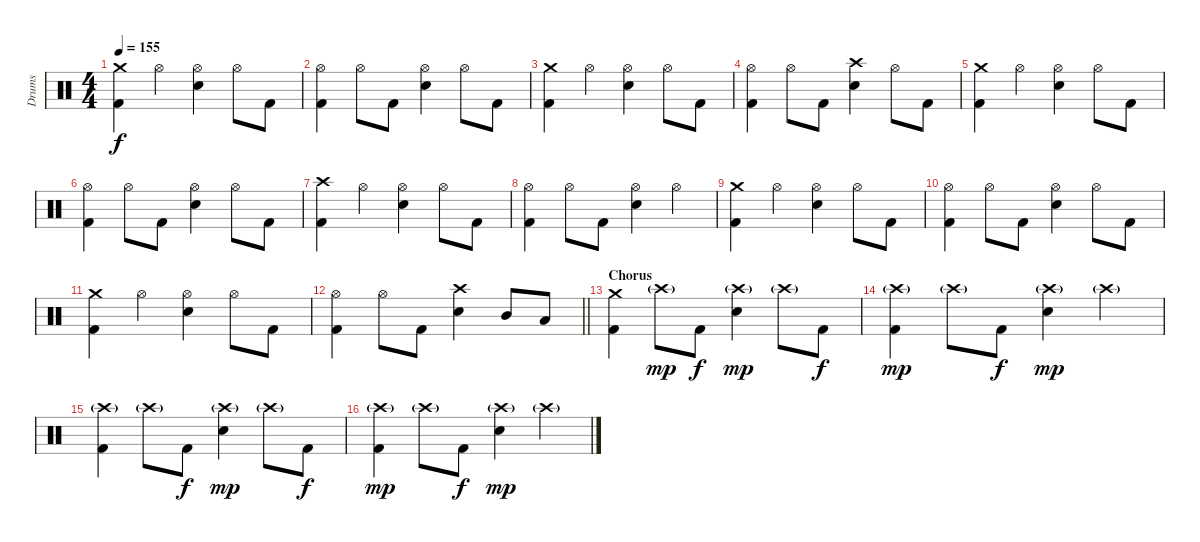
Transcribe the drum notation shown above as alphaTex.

\track ("Drums" "Drums") {instrument percussion}
\staff {score}
\articulation defaults
\ts (4 4)
\tempo 155
\clef neutral
\ks c
("Crash medium (hit)" "Kick (hit) 2").4{dy f} "Hi-Hat (open)".4 ("Hi-Hat (open)" "Electric Snare (hit)").4 "Hi-Hat (open)".8 "Kick (hit) 2".8 |
("Hi-Hat (open)" "Kick (hit) 2").4 "Hi-Hat (open)".8 "Kick (hit) 2".8 ("Hi-Hat (open)" "Electric Snare (hit)").4 "Hi-Hat (open)".8 "Kick (hit) 2".8 |
("Crash medium (hit)" "Kick (hit) 2").4 "Hi-Hat (open)".4 ("Hi-Hat (open)" "Electric Snare (hit)").4 "Hi-Hat (open)".8 "Kick (hit) 2".8 |
("Hi-Hat (open)" "Kick (hit) 2").4 "Hi-Hat (open)".8 "Kick (hit) 2".8 ("Crash high (hit)" "Electric Snare (hit)").4 "Hi-Hat (open)".8 "Kick (hit) 2".8 |
("Crash medium (hit)" "Kick (hit) 2").4 "Hi-Hat (open)".4 ("Hi-Hat (open)" "Electric Snare (hit)").4 "Hi-Hat (open)".8 "Kick (hit) 2".8 |
("Hi-Hat (open)" "Kick (hit) 2").4 "Hi-Hat (open)".8 "Kick (hit) 2".8 ("Hi-Hat (open)" "Electric Snare (hit)").4 "Hi-Hat (open)".8 "Kick (hit) 2".8 |
("Crash high (hit)" "Kick (hit) 2").4 "Hi-Hat (open)".4 ("Hi-Hat (open)" "Electric Snare (hit)").4 "Hi-Hat (open)".8 "Kick (hit) 2".8 |
("Hi-Hat (open)" "Kick (hit) 2").4 "Hi-Hat (open)".8 "Kick (hit) 2".8 ("Hi-Hat (open)" "Electric Snare (hit)").4 "Hi-Hat (open)".4 |
("Crash medium (hit)" "Kick (hit) 2").4 "Hi-Hat (open)".4 ("Hi-Hat (open)" "Electric Snare (hit)").4 "Hi-Hat (open)".8 "Kick (hit) 2".8 |
("Hi-Hat (open)" "Kick (hit) 2").4 "Hi-Hat (open)".8 "Kick (hit) 2".8 ("Hi-Hat (open)" "Electric Snare (hit)").4 "Hi-Hat (open)".8 "Kick (hit) 2".8 |
("Crash medium (hit)" "Kick (hit) 2").4 "Hi-Hat (open)".4 ("Hi-Hat (open)" "Electric Snare (hit)").4 "Hi-Hat (open)".8 "Kick (hit) 2".8 |
\barLineRight lightlight
("Hi-Hat (open)" "Kick (hit) 2").4 "Hi-Hat (open)".8 "Kick (hit) 2".8 ("Crash high (hit)" "Electric Snare (hit)").4 "Mid Tom (hit)".8 "Low Tom (hit)".8 |
\section ("" "Chorus")
("Crash medium (hit)" "Kick (hit) 2").4 "Crash high (hit)"{g}.8{dy mp} "Kick (hit) 2".8{dy f} ("Crash high (hit)"{g} "Electric Snare (hit)").4{dy mp} "Crash high (hit)"{g}.8 "Kick (hit) 2".8{dy f} |
("Crash high (hit)"{g} "Kick (hit) 2").4{dy mp} "Crash high (hit)"{g}.8 "Kick (hit) 2".8{dy f} ("Crash high (hit)"{g} "Electric Snare (hit)").4{dy mp} "Crash high (hit)"{g}.4 |
("Crash high (hit)"{g} "Kick (hit) 2").4 "Crash high (hit)"{g}.8 "Kick (hit) 2".8{dy f} ("Crash high (hit)"{g} "Electric Snare (hit)").4{dy mp} "Crash high (hit)"{g}.8 "Kick (hit) 2".8{dy f} |
("Crash high (hit)"{g} "Kick (hit) 2").4{dy mp} "Crash high (hit)"{g}.8 "Kick (hit) 2".8{dy f} ("Crash high (hit)"{g} "Electric Snare (hit)").4{dy mp} "Crash high (hit)"{g}.4
